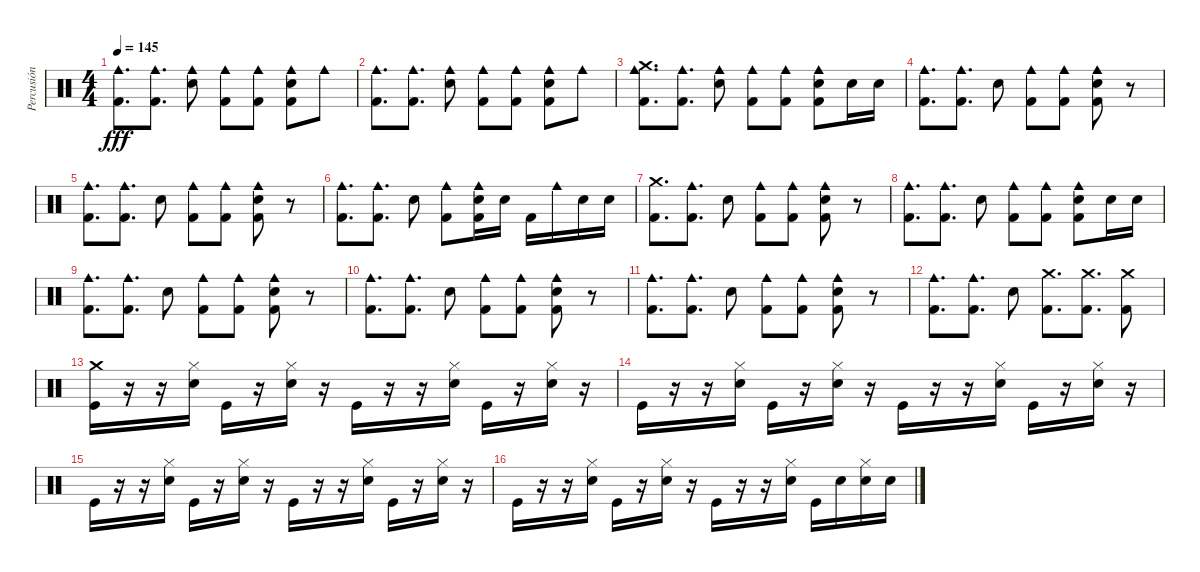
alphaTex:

\track ("Percusión" "Percusión") {instrument percussion}
\staff {score}
\articulation defaults
\ts (4 4)
\tempo 145
\clef neutral
\ks c
("Cowbell medium (hit)" "Kick (hit) 2").8{d dy fff} ("Cowbell medium (hit)" "Kick (hit) 2").8{d} ("Cowbell medium (hit)" "Electric Snare (hit)").8 ("Cowbell medium (hit)" "Kick (hit) 2").8 ("Cowbell medium (hit)" "Kick (hit) 2").8 ("Cowbell medium (hit)" "Electric Snare (hit)" "Kick (hit) 2").8 "Cowbell medium (hit)".8 |
("Cowbell medium (hit)" "Kick (hit) 2").8{d} ("Cowbell medium (hit)" "Kick (hit) 2").8{d} ("Cowbell medium (hit)" "Electric Snare (hit)").8 ("Cowbell medium (hit)" "Kick (hit) 2").8 ("Cowbell medium (hit)" "Kick (hit) 2").8 ("Cowbell medium (hit)" "Electric Snare (hit)" "Kick (hit) 2").8 "Cowbell medium (hit)".8 |
("Crash medium (hit)" "Cowbell medium (hit)" "Kick (hit) 2").8{d} ("Cowbell medium (hit)" "Kick (hit) 2").8{d} ("Cowbell medium (hit)" "Electric Snare (hit)").8 ("Cowbell medium (hit)" "Kick (hit) 2").8 ("Cowbell medium (hit)" "Kick (hit) 2").8 ("Cowbell medium (hit)" "Electric Snare (hit)" "Kick (hit) 2").8 "Electric Snare (hit)".16 "Electric Snare (hit)".16 |
("Cowbell medium (hit)" "Kick (hit) 2").8{d} ("Cowbell medium (hit)" "Kick (hit) 2").8{d} "Electric Snare (hit)".8 ("Cowbell medium (hit)" "Kick (hit) 2").8 ("Cowbell medium (hit)" "Kick (hit) 2").8 ("Cowbell medium (hit)" "Electric Snare (hit)" "Kick (hit) 2").8 r.8 |
("Cowbell medium (hit)" "Kick (hit) 2").8{d} ("Cowbell medium (hit)" "Kick (hit) 2").8{d} "Electric Snare (hit)".8 ("Cowbell medium (hit)" "Kick (hit) 2").8 ("Cowbell medium (hit)" "Kick (hit) 2").8 ("Cowbell medium (hit)" "Electric Snare (hit)" "Kick (hit) 2").8 r.8 |
("Cowbell medium (hit)" "Kick (hit) 2").8{d} ("Cowbell medium (hit)" "Kick (hit) 2").8{d} "Electric Snare (hit)".8 ("Cowbell medium (hit)" "Kick (hit) 2").8 ("Cowbell medium (hit)" "Electric Snare (hit)" "Kick (hit) 2").16 "Electric Snare (hit)".16 "Kick (hit) 2".16 "Cowbell medium (hit)".16 "Electric Snare (hit)".16 "Electric Snare (hit)".16 |
("Crash medium (hit)" "Kick (hit) 2").8{d} ("Cowbell medium (hit)" "Kick (hit) 2").8{d} "Electric Snare (hit)".8 ("Cowbell medium (hit)" "Kick (hit) 2").8 ("Cowbell medium (hit)" "Kick (hit) 2").8 ("Cowbell medium (hit)" "Electric Snare (hit)" "Kick (hit) 2").8 r.8 |
("Cowbell medium (hit)" "Kick (hit) 2").8{d} ("Cowbell medium (hit)" "Kick (hit) 2").8{d} "Electric Snare (hit)".8 ("Cowbell medium (hit)" "Kick (hit) 2").8 ("Cowbell medium (hit)" "Kick (hit) 2").8 ("Cowbell medium (hit)" "Electric Snare (hit)" "Kick (hit) 2").8 "Electric Snare (hit)".16 "Electric Snare (hit)".16 |
("Cowbell medium (hit)" "Kick (hit) 2").8{d} ("Cowbell medium (hit)" "Kick (hit) 2").8{d} "Electric Snare (hit)".8 ("Cowbell medium (hit)" "Kick (hit) 2").8 ("Cowbell medium (hit)" "Kick (hit) 2").8 ("Cowbell medium (hit)" "Electric Snare (hit)" "Kick (hit) 2").8 r.8 |
("Cowbell medium (hit)" "Kick (hit) 2").8{d} ("Cowbell medium (hit)" "Kick (hit) 2").8{d} "Electric Snare (hit)".8 ("Cowbell medium (hit)" "Kick (hit) 2").8 ("Cowbell medium (hit)" "Kick (hit) 2").8 ("Cowbell medium (hit)" "Electric Snare (hit)" "Kick (hit) 2").8 r.8 |
("Cowbell medium (hit)" "Kick (hit) 2").8{d} ("Cowbell medium (hit)" "Kick (hit) 2").8{d} "Electric Snare (hit)".8 ("Cowbell medium (hit)" "Kick (hit) 2").8 ("Cowbell medium (hit)" "Kick (hit) 2").8 ("Cowbell medium (hit)" "Electric Snare (hit)" "Kick (hit) 2").8 r.8 |
("Cowbell medium (hit)" "Kick (hit) 2").8{d} ("Cowbell medium (hit)" "Kick (hit) 2").8{d} "Electric Snare (hit)".8 ("Crash medium (hit)" "Kick (hit) 2").8{d} ("Crash medium (hit)" "Kick (hit) 2").8{d} ("Crash medium (hit)" "Kick (hit) 2").8 |
("Crash medium (hit)" "Kick (hit)").16 r.16 r.16 ("Hi-Hat (closed)" "Electric Snare (hit)").16 "Kick (hit)".16 r.16 ("Hi-Hat (closed)" "Electric Snare (hit)").16 r.16 "Kick (hit)".16 r.16 r.16 ("Hi-Hat (closed)" "Electric Snare (hit)").16 "Kick (hit)".16 r.16 ("Hi-Hat (closed)" "Electric Snare (hit)").16 r.16 |
"Kick (hit)".16 r.16 r.16 ("Hi-Hat (closed)" "Electric Snare (hit)").16 "Kick (hit)".16 r.16 ("Hi-Hat (closed)" "Electric Snare (hit)").16 r.16 "Kick (hit)".16 r.16 r.16 ("Hi-Hat (closed)" "Electric Snare (hit)").16 "Kick (hit)".16 r.16 ("Hi-Hat (closed)" "Electric Snare (hit)").16 r.16 |
"Kick (hit)".16 r.16 r.16 ("Hi-Hat (closed)" "Electric Snare (hit)").16 "Kick (hit)".16 r.16 ("Hi-Hat (closed)" "Electric Snare (hit)").16 r.16 "Kick (hit)".16 r.16 r.16 ("Hi-Hat (closed)" "Electric Snare (hit)").16 "Kick (hit)".16 r.16 ("Hi-Hat (closed)" "Electric Snare (hit)").16 r.16 |
"Kick (hit)".16 r.16 r.16 ("Hi-Hat (closed)" "Electric Snare (hit)").16 "Kick (hit)".16 r.16 ("Hi-Hat (closed)" "Electric Snare (hit)").16 r.16 "Kick (hit)".16 r.16 r.16 ("Hi-Hat (closed)" "Electric Snare (hit)").16 "Kick (hit)".16 "Electric Snare (hit)".16 ("Hi-Hat (closed)" "Electric Snare (hit)").16 "Electric Snare (hit)".16
